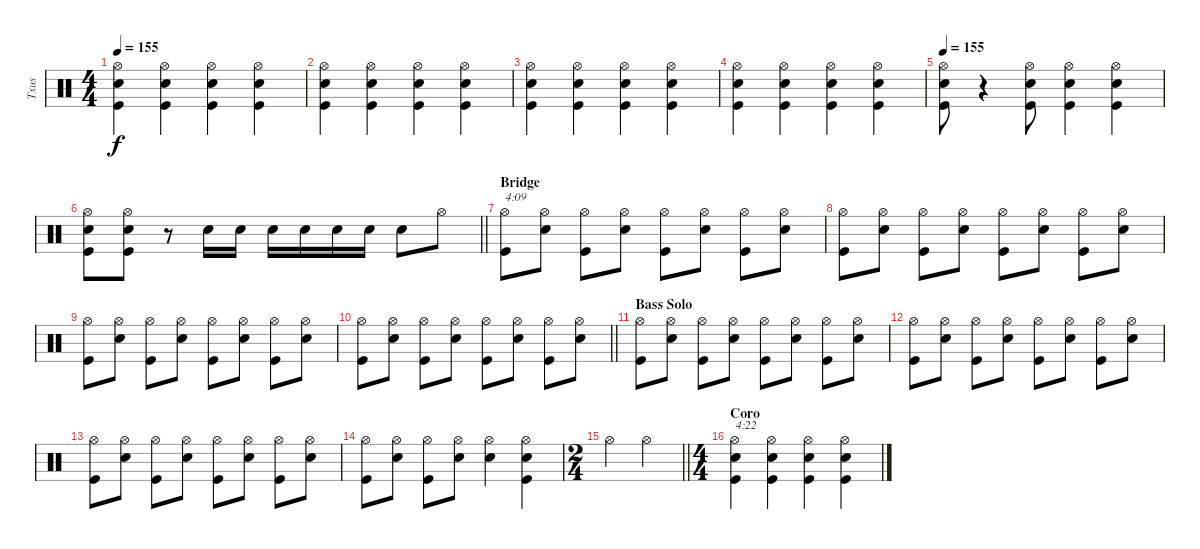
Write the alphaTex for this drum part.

\track ("Txus" "Txus") {instrument percussion}
\staff {score}
\articulation defaults
\ts (4 4)
\tempo 155
\clef neutral
\ks c
("Kick (hit)" "Snare (hit) 2" "Hi-Hat (open)").4{dy f} ("Kick (hit)" "Snare (hit) 2" "Hi-Hat (open)").4 ("Kick (hit)" "Snare (hit) 2" "Hi-Hat (open)").4 ("Kick (hit)" "Snare (hit) 2" "Hi-Hat (open)").4 |
("Kick (hit)" "Snare (hit) 2" "Hi-Hat (open)").4 ("Kick (hit)" "Snare (hit) 2" "Hi-Hat (open)").4 ("Kick (hit)" "Snare (hit) 2" "Hi-Hat (open)").4 ("Kick (hit)" "Snare (hit) 2" "Hi-Hat (open)").4 |
("Kick (hit)" "Snare (hit) 2" "Hi-Hat (open)").4 ("Kick (hit)" "Snare (hit) 2" "Hi-Hat (open)").4 ("Kick (hit)" "Snare (hit) 2" "Hi-Hat (open)").4 ("Kick (hit)" "Snare (hit) 2" "Hi-Hat (open)").4 |
("Kick (hit)" "Snare (hit) 2" "Hi-Hat (open)").4 ("Kick (hit)" "Snare (hit) 2" "Hi-Hat (open)").4 ("Kick (hit)" "Snare (hit) 2" "Hi-Hat (open)").4 ("Kick (hit)" "Snare (hit) 2" "Hi-Hat (open)").4 |
\tempo 155
("Kick (hit)" "Snare (hit) 2" "Hi-Hat (open)").8 r.4 ("Kick (hit)" "Snare (hit) 2" "Hi-Hat (open)").8 ("Kick (hit)" "Snare (hit) 2" "Hi-Hat (open)").4 ("Kick (hit)" "Snare (hit) 2" "Hi-Hat (open)").4 |
\barLineRight lightlight
("Kick (hit)" "Snare (hit) 2" "Hi-Hat (open)").8 ("Kick (hit)" "Snare (hit) 2" "Hi-Hat (open)").8 r.8 "Snare (hit) 2".16 "Snare (hit) 2".16 "Snare (hit) 2".16 "Snare (hit) 2".16 "Snare (hit) 2".16 "Snare (hit) 2".16 "Snare (hit) 2".8 "Hi-Hat (open)".8 |
\section ("" "Bridge")
("Kick (hit)" "Hi-Hat (open)").8{txt "4:09"} ("Snare (hit) 2" "Hi-Hat (open)").8 ("Kick (hit)" "Hi-Hat (open)").8 ("Snare (hit) 2" "Hi-Hat (open)").8 ("Kick (hit)" "Hi-Hat (open)").8 ("Snare (hit) 2" "Hi-Hat (open)").8 ("Kick (hit)" "Hi-Hat (open)").8 ("Snare (hit) 2" "Hi-Hat (open)").8 |
("Kick (hit)" "Hi-Hat (open)").8 ("Snare (hit) 2" "Hi-Hat (open)").8 ("Kick (hit)" "Hi-Hat (open)").8 ("Snare (hit) 2" "Hi-Hat (open)").8 ("Kick (hit)" "Hi-Hat (open)").8 ("Snare (hit) 2" "Hi-Hat (open)").8 ("Kick (hit)" "Hi-Hat (open)").8 ("Snare (hit) 2" "Hi-Hat (open)").8 |
("Kick (hit)" "Hi-Hat (open)").8 ("Snare (hit) 2" "Hi-Hat (open)").8 ("Kick (hit)" "Hi-Hat (open)").8 ("Snare (hit) 2" "Hi-Hat (open)").8 ("Kick (hit)" "Hi-Hat (open)").8 ("Snare (hit) 2" "Hi-Hat (open)").8 ("Kick (hit)" "Hi-Hat (open)").8 ("Snare (hit) 2" "Hi-Hat (open)").8 |
\barLineRight lightlight
("Kick (hit)" "Hi-Hat (open)").8 ("Snare (hit) 2" "Hi-Hat (open)").8 ("Kick (hit)" "Hi-Hat (open)").8 ("Snare (hit) 2" "Hi-Hat (open)").8 ("Kick (hit)" "Hi-Hat (open)").8 ("Snare (hit) 2" "Hi-Hat (open)").8 ("Kick (hit)" "Hi-Hat (open)").8 ("Snare (hit) 2" "Hi-Hat (open)").8 |
\section ("" "Bass Solo")
("Kick (hit)" "Hi-Hat (open)").8 ("Snare (hit) 2" "Hi-Hat (open)").8 ("Kick (hit)" "Hi-Hat (open)").8 ("Snare (hit) 2" "Hi-Hat (open)").8 ("Kick (hit)" "Hi-Hat (open)").8 ("Snare (hit) 2" "Hi-Hat (open)").8 ("Kick (hit)" "Hi-Hat (open)").8 ("Snare (hit) 2" "Hi-Hat (open)").8 |
("Kick (hit)" "Hi-Hat (open)").8 ("Snare (hit) 2" "Hi-Hat (open)").8 ("Kick (hit)" "Hi-Hat (open)").8 ("Snare (hit) 2" "Hi-Hat (open)").8 ("Kick (hit)" "Hi-Hat (open)").8 ("Snare (hit) 2" "Hi-Hat (open)").8 ("Kick (hit)" "Hi-Hat (open)").8 ("Snare (hit) 2" "Hi-Hat (open)").8 |
("Kick (hit)" "Hi-Hat (open)").8 ("Snare (hit) 2" "Hi-Hat (open)").8 ("Kick (hit)" "Hi-Hat (open)").8 ("Snare (hit) 2" "Hi-Hat (open)").8 ("Kick (hit)" "Hi-Hat (open)").8 ("Snare (hit) 2" "Hi-Hat (open)").8 ("Kick (hit)" "Hi-Hat (open)").8 ("Snare (hit) 2" "Hi-Hat (open)").8 |
("Kick (hit)" "Hi-Hat (open)").8 ("Snare (hit) 2" "Hi-Hat (open)").8 ("Kick (hit)" "Hi-Hat (open)").8 ("Snare (hit) 2" "Hi-Hat (open)").8 ("Snare (hit) 2" "Hi-Hat (open)").4 ("Kick (hit)" "Snare (hit) 2" "Hi-Hat (open)").4 |
\ts (2 4)
\barLineRight lightlight "Hi-Hat (open)".4 "Hi-Hat (open)".4
|
\ts (4 4)
\section ("" "Coro")
("Kick (hit)" "Snare (hit) 2" "Hi-Hat (open)").4{txt "4:22"} ("Kick (hit)" "Snare (hit) 2" "Hi-Hat (open)").4 ("Kick (hit)" "Snare (hit) 2" "Hi-Hat (open)").4 ("Kick (hit)" "Snare (hit) 2" "Hi-Hat (open)").4
